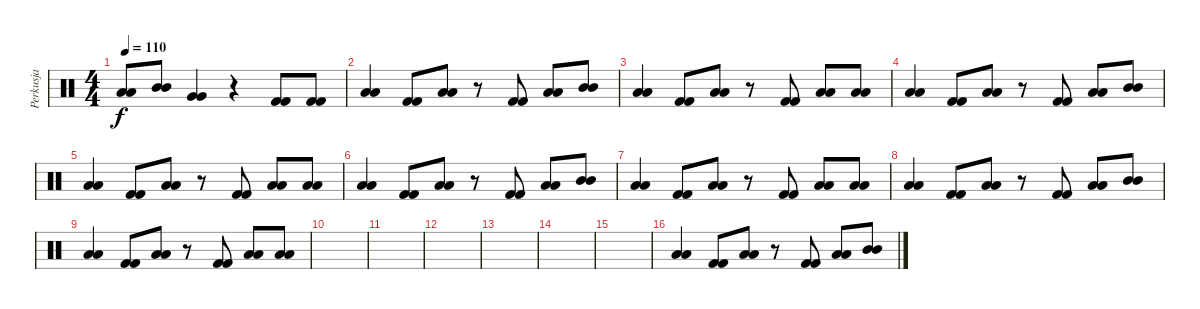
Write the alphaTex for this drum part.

\track ("Perkusja" "Perkusja") {instrument percussion}
\staff {score}
\articulation defaults
\ts (4 4)
\tempo 110
\clef neutral
\ks c
("Low Tom (hit)" "Low Tom (hit)").8{dy f} ("Mid Tom (hit)" "Mid Tom (hit)").8 ("Very Low Tom (hit)" "Very Low Tom (hit)").4 r.4 ("Kick (hit) 2" "Kick (hit) 2").8 ("Kick (hit) 2" "Kick (hit) 2").8 |
("Low Tom (hit)" "Low Tom (hit)").4 ("Kick (hit) 2" "Kick (hit) 2").8 ("Low Tom (hit)" "Low Tom (hit)").8 r.8 ("Kick (hit) 2" "Kick (hit) 2").8 ("Low Tom (hit)" "Low Tom (hit)").8 ("Mid Tom (hit)" "Mid Tom (hit)").8 |
("Low Floor Tom (hit)" "Low Floor Tom (hit)").4 ("Kick (hit) 2" "Kick (hit) 2").8 ("Low Floor Tom (hit)" "Low Floor Tom (hit)").8 r.8 ("Kick (hit) 2" "Kick (hit) 2").8 ("Low Floor Tom (hit)" "Low Floor Tom (hit)").8 ("Low Tom (hit)" "Low Tom (hit)").8 |
("Low Tom (hit)" "Low Tom (hit)").4 ("Kick (hit) 2" "Kick (hit) 2").8 ("Low Tom (hit)" "Low Tom (hit)").8 r.8 ("Kick (hit) 2" "Kick (hit) 2").8 ("Low Tom (hit)" "Low Tom (hit)").8 ("Mid Tom (hit)" "Mid Tom (hit)").8 |
("Low Floor Tom (hit)" "Low Floor Tom (hit)").4 ("Kick (hit) 2" "Kick (hit) 2").8 ("Low Floor Tom (hit)" "Low Floor Tom (hit)").8 r.8 ("Kick (hit) 2" "Kick (hit) 2").8 ("Low Floor Tom (hit)" "Low Floor Tom (hit)").8 ("Low Tom (hit)" "Low Tom (hit)").8 |
("Low Tom (hit)" "Low Tom (hit)").4 ("Kick (hit) 2" "Kick (hit) 2").8 ("Low Tom (hit)" "Low Tom (hit)").8 r.8 ("Kick (hit) 2" "Kick (hit) 2").8 ("Low Tom (hit)" "Low Tom (hit)").8 ("Mid Tom (hit)" "Mid Tom (hit)").8 |
("Low Floor Tom (hit)" "Low Floor Tom (hit)").4 ("Kick (hit) 2" "Kick (hit) 2").8 ("Low Floor Tom (hit)" "Low Floor Tom (hit)").8 r.8 ("Kick (hit) 2" "Kick (hit) 2").8 ("Low Floor Tom (hit)" "Low Floor Tom (hit)").8 ("Low Tom (hit)" "Low Tom (hit)").8 |
("Low Tom (hit)" "Low Tom (hit)").4 ("Kick (hit) 2" "Kick (hit) 2").8 ("Low Tom (hit)" "Low Tom (hit)").8 r.8 ("Kick (hit) 2" "Kick (hit) 2").8 ("Low Tom (hit)" "Low Tom (hit)").8 ("Mid Tom (hit)" "Mid Tom (hit)").8 |
("Low Floor Tom (hit)" "Low Floor Tom (hit)").4 ("Kick (hit) 2" "Kick (hit) 2").8 ("Low Floor Tom (hit)" "Low Floor Tom (hit)").8 r.8 ("Kick (hit) 2" "Kick (hit) 2").8 ("Low Floor Tom (hit)" "Low Floor Tom (hit)").8 ("Low Tom (hit)" "Low Tom (hit)").8 |
|
|
|
|
|
|
("Low Tom (hit)" "Low Tom (hit)").4 ("Kick (hit) 2" "Kick (hit) 2").8 ("Low Tom (hit)" "Low Tom (hit)").8 r.8 ("Kick (hit) 2" "Kick (hit) 2").8 ("Low Tom (hit)" "Low Tom (hit)").8 ("Mid Tom (hit)" "Mid Tom (hit)").8
